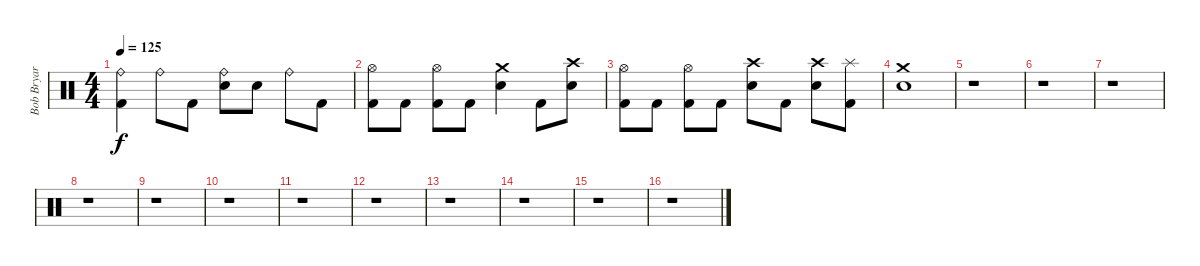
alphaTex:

\track ("Bob Bryar" "Bob Bryar") {instrument percussion}
\staff {score}
\articulation defaults
\ts (4 4)
\tempo 125
\clef neutral
\ks c
("Ride (bell)" "Kick (hit) 2").4{dy f} "Ride (bell)".8 "Kick (hit) 2".8 ("Ride (bell)" "Snare (hit) 2").8 "Snare (hit) 2".8 "Ride (bell)".8 "Kick (hit) 2".8 |
("Hi-Hat (open)" "Kick (hit) 2").8 "Kick (hit) 2".8 ("Hi-Hat (open)" "Kick (hit) 2").8 "Kick (hit) 2".8 ("Crash medium (hit)" "Snare (hit) 2").4 "Kick (hit) 2".8 ("Crash high (hit)" "Snare (hit) 2").8 |
("Hi-Hat (open)" "Kick (hit) 2").8 "Kick (hit) 2".8 ("Hi-Hat (open)" "Kick (hit) 2").8 "Kick (hit) 2".8 ("Crash high (hit)" "Snare (hit) 2").8 "Kick (hit) 2".8 ("Crash high (hit)" "Snare (hit) 2").8 ("Splash (hit)" "Kick (hit) 2").8 |
("Crash medium (hit)" "Snare (hit) 2").1 |
r.1 |
r.1 |
r.1 |
r.1 |
r.1 |
r.1 |
r.1 |
r.1 |
r.1 |
r.1 |
r.1 |
r.1
